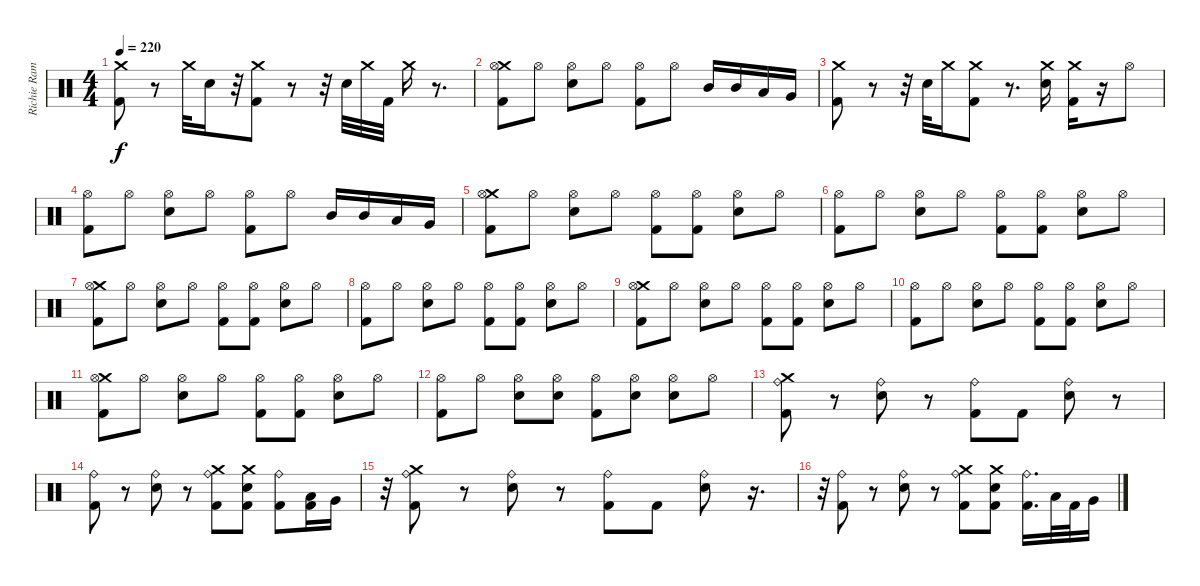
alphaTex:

\track ("Richie Ramone" "Richie Ram") {instrument percussion}
\staff {score}
\articulation defaults
\ts (4 4)
\tempo 220
\clef neutral
\ks c
("Kick (hit) 2" "Crash medium (hit)").8{dy f} r.8 "Crash medium (hit)".32 "Electric Snare (hit)".16 r.32 ("Kick (hit) 2" "Crash medium (hit)").8 r.8 r.32 "Electric Snare (hit)".32 "Crash medium (hit)".32 "Kick (hit) 2".32 "Crash medium (hit)".16 r.8{d} |
("Crash medium (hit)" "Kick (hit) 2" "Hi-Hat (open)").8 "Hi-Hat (open)".8 ("Electric Snare (hit)" "Hi-Hat (open)").8 "Hi-Hat (open)".8 ("Kick (hit) 2" "Hi-Hat (open)").8 "Hi-Hat (open)".8 "Mid Tom (hit)".16 "Mid Tom (hit)".16 "Low Tom (hit)".16 "Very Low Tom (hit)".16 |
("Kick (hit) 2" "Crash medium (hit)").8 r.8 r.32 "Electric Snare (hit)".32 "Crash medium (hit)".16 ("Kick (hit) 2" "Crash medium (hit)").8 r.8{d} ("Electric Snare (hit)" "Crash medium (hit)").16 ("Kick (hit) 2" "Crash medium (hit)").16 r.16 "Hi-Hat (open)".8 |
("Kick (hit) 2" "Hi-Hat (open)").8 "Hi-Hat (open)".8 ("Electric Snare (hit)" "Hi-Hat (open)").8 "Hi-Hat (open)".8 ("Kick (hit) 2" "Hi-Hat (open)").8 "Hi-Hat (open)".8 "Mid Tom (hit)".16 "Mid Tom (hit)".16 "Low Tom (hit)".16 "Very Low Tom (hit)".16 |
("Kick (hit) 2" "Crash medium (hit)" "Hi-Hat (open)").8 "Hi-Hat (open)".8 ("Electric Snare (hit)" "Hi-Hat (open)").8 "Hi-Hat (open)".8 ("Hi-Hat (open)" "Kick (hit) 2").8 ("Hi-Hat (open)" "Kick (hit) 2").8 ("Electric Snare (hit)" "Hi-Hat (open)").8 "Hi-Hat (open)".8 |
("Kick (hit) 2" "Hi-Hat (open)").8 "Hi-Hat (open)".8 ("Electric Snare (hit)" "Hi-Hat (open)").8 "Hi-Hat (open)".8 ("Hi-Hat (open)" "Kick (hit) 2").8 ("Hi-Hat (open)" "Kick (hit) 2").8 ("Electric Snare (hit)" "Hi-Hat (open)").8 "Hi-Hat (open)".8 |
("Kick (hit) 2" "Crash medium (hit)" "Hi-Hat (open)").8 "Hi-Hat (open)".8 ("Electric Snare (hit)" "Hi-Hat (open)").8 "Hi-Hat (open)".8 ("Hi-Hat (open)" "Kick (hit) 2").8 ("Hi-Hat (open)" "Kick (hit) 2").8 ("Electric Snare (hit)" "Hi-Hat (open)").8 "Hi-Hat (open)".8 |
("Kick (hit) 2" "Hi-Hat (open)").8 "Hi-Hat (open)".8 ("Electric Snare (hit)" "Hi-Hat (open)").8 "Hi-Hat (open)".8 ("Hi-Hat (open)" "Kick (hit) 2").8 ("Hi-Hat (open)" "Kick (hit) 2").8 ("Electric Snare (hit)" "Hi-Hat (open)").8 "Hi-Hat (open)".8 |
("Kick (hit) 2" "Crash medium (hit)" "Hi-Hat (open)").8 "Hi-Hat (open)".8 ("Electric Snare (hit)" "Hi-Hat (open)").8 "Hi-Hat (open)".8 ("Hi-Hat (open)" "Kick (hit) 2").8 ("Hi-Hat (open)" "Kick (hit) 2").8 ("Electric Snare (hit)" "Hi-Hat (open)").8 "Hi-Hat (open)".8 |
("Kick (hit) 2" "Hi-Hat (open)").8 "Hi-Hat (open)".8 ("Electric Snare (hit)" "Hi-Hat (open)").8 "Hi-Hat (open)".8 ("Hi-Hat (open)" "Kick (hit) 2").8 ("Hi-Hat (open)" "Kick (hit) 2").8 ("Electric Snare (hit)" "Hi-Hat (open)").8 "Hi-Hat (open)".8 |
("Kick (hit) 2" "Crash medium (hit)" "Hi-Hat (open)").8 "Hi-Hat (open)".8 ("Electric Snare (hit)" "Hi-Hat (open)").8 "Hi-Hat (open)".8 ("Hi-Hat (open)" "Kick (hit) 2").8 ("Hi-Hat (open)" "Kick (hit) 2").8 ("Electric Snare (hit)" "Hi-Hat (open)").8 "Hi-Hat (open)".8 |
("Kick (hit) 2" "Hi-Hat (open)").8 "Hi-Hat (open)".8 ("Electric Snare (hit)" "Hi-Hat (open)").8 ("Hi-Hat (open)" "Electric Snare (hit)").8 ("Kick (hit) 2" "Hi-Hat (open)").8 ("Electric Snare (hit)" "Hi-Hat (open)").8 ("Hi-Hat (open)" "Electric Snare (hit)").8 "Hi-Hat (open)".8 |
("Crash medium (hit)" "Ride (bell)" "Kick (hit) 2").8 r.8 ("Ride (bell)" "Electric Snare (hit)").8 r.8 ("Ride (bell)" "Kick (hit) 2").8 "Kick (hit) 2".8 ("Ride (bell)" "Electric Snare (hit)").8 r.8 |
("Ride (bell)" "Kick (hit) 2").8 r.8 ("Ride (bell)" "Electric Snare (hit)").8 r.8 ("Crash medium (hit)" "Ride (bell)" "Kick (hit) 2").8 ("Electric Snare (hit)" "Crash medium (hit)" "Kick (hit) 2").8 ("Kick (hit) 2" "Ride (bell)").8 ("Low Tom (hit)" "Kick (hit) 2").16 "Very Low Tom (hit)".16 |
r.32 ("Crash medium (hit)" "Ride (bell)" "Kick (hit) 2").8 r.8 ("Ride (bell)" "Electric Snare (hit)").8 r.8 ("Ride (bell)" "Kick (hit) 2").8 "Kick (hit) 2".8 ("Ride (bell)" "Electric Snare (hit)").8 r.16{d} |
r.32 ("Ride (bell)" "Kick (hit) 2").8 r.8 ("Ride (bell)" "Electric Snare (hit)").8 r.8 ("Crash medium (hit)" "Ride (bell)" "Kick (hit) 2").8 ("Electric Snare (hit)" "Crash medium (hit)" "Kick (hit) 2").8 ("Kick (hit) 2" "Ride (bell)").16{d} "Low Tom (hit)".32 "Kick (hit) 2".32 "Very Low Tom (hit)".16
